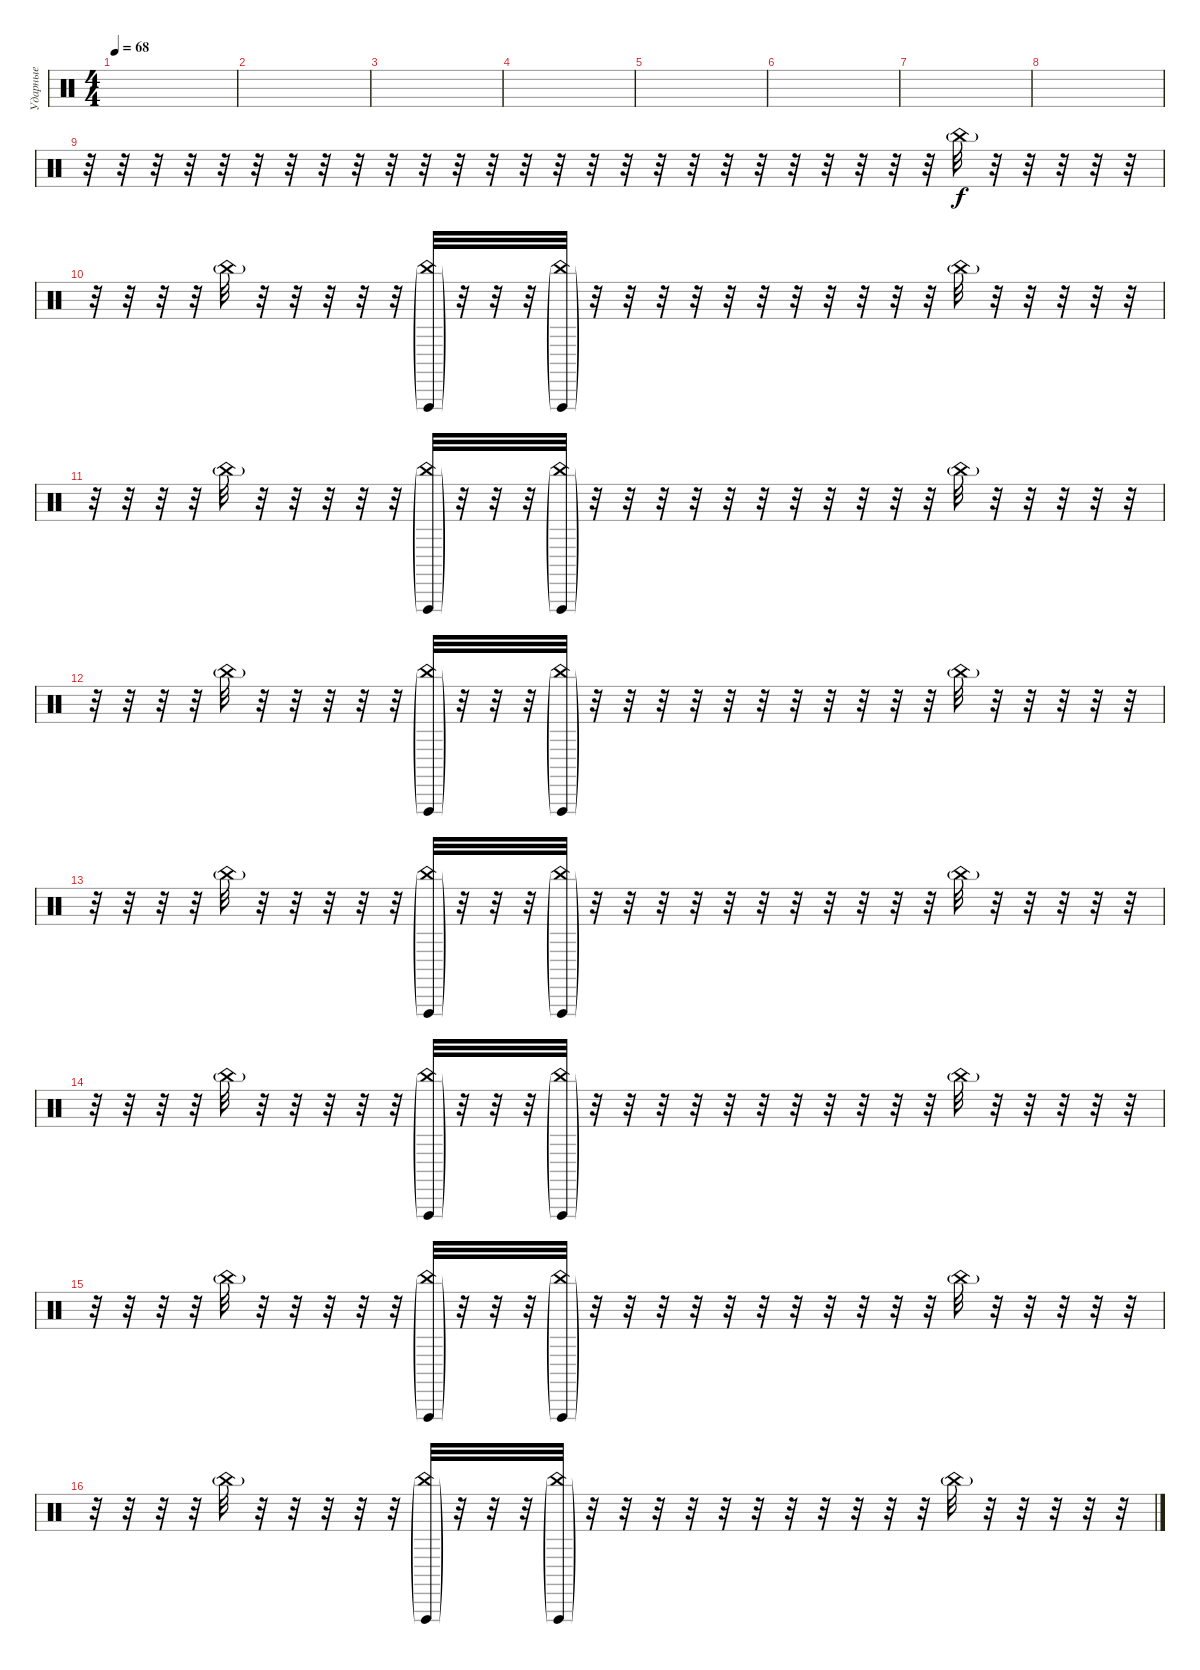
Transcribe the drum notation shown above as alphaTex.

\track ("Ударные" "Ударные") {instrument percussion}
\staff {score}
\articulation defaults
\ts (4 4)
\tempo 68
\clef neutral
\ks c
|
|
|
|
|
|
|
|
r.32 r.32 r.32 r.32 r.32 r.32 r.32 r.32 r.32 r.32 r.32 r.32 r.32 r.32 r.32 r.32 r.32 r.32 r.32 r.32 r.32 r.32 r.32 r.32 r.32 r.32 "China (hit)"{g}.32 r.32 r.32 r.32 r.32 r.32 |
r.32 r.32 r.32 r.32 "China (hit)"{g}.32 r.32 r.32 r.32 r.32 r.32 ("China (hit)"{g} "Vibraslap (hit)"{g}).32 r.32 r.32 r.32 ("China (hit)"{g} "Vibraslap (hit)"{g}).32 r.32 r.32 r.32 r.32 r.32 r.32 r.32 r.32 r.32 r.32 r.32 "China (hit)"{g}.32 r.32 r.32 r.32 r.32 r.32 |
r.32 r.32 r.32 r.32 "China (hit)"{g}.32 r.32 r.32 r.32 r.32 r.32 ("China (hit)"{g} "Vibraslap (hit)"{g}).32 r.32 r.32 r.32 ("China (hit)"{g} "Vibraslap (hit)"{g}).32 r.32 r.32 r.32 r.32 r.32 r.32 r.32 r.32 r.32 r.32 r.32 "China (hit)"{g}.32 r.32 r.32 r.32 r.32 r.32 |
r.32 r.32 r.32 r.32 "China (hit)"{g}.32 r.32 r.32 r.32 r.32 r.32 ("China (hit)"{g} "Vibraslap (hit)"{g}).32 r.32 r.32 r.32 ("China (hit)"{g} "Vibraslap (hit)"{g}).32 r.32 r.32 r.32 r.32 r.32 r.32 r.32 r.32 r.32 r.32 r.32 "China (hit)"{g}.32 r.32 r.32 r.32 r.32 r.32 |
r.32 r.32 r.32 r.32 "China (hit)"{g}.32 r.32 r.32 r.32 r.32 r.32 ("China (hit)"{g} "Vibraslap (hit)"{g}).32 r.32 r.32 r.32 ("China (hit)"{g} "Vibraslap (hit)"{g}).32 r.32 r.32 r.32 r.32 r.32 r.32 r.32 r.32 r.32 r.32 r.32 "China (hit)"{g}.32 r.32 r.32 r.32 r.32 r.32 |
r.32 r.32 r.32 r.32 "China (hit)"{g}.32 r.32 r.32 r.32 r.32 r.32 ("China (hit)"{g} "Vibraslap (hit)"{g}).32 r.32 r.32 r.32 ("China (hit)"{g} "Vibraslap (hit)"{g}).32 r.32 r.32 r.32 r.32 r.32 r.32 r.32 r.32 r.32 r.32 r.32 "China (hit)"{g}.32 r.32 r.32 r.32 r.32 r.32 |
r.32 r.32 r.32 r.32 "China (hit)"{g}.32 r.32 r.32 r.32 r.32 r.32 ("China (hit)"{g} "Vibraslap (hit)"{g}).32 r.32 r.32 r.32 ("China (hit)"{g} "Vibraslap (hit)"{g}).32 r.32 r.32 r.32 r.32 r.32 r.32 r.32 r.32 r.32 r.32 r.32 "China (hit)"{g}.32 r.32 r.32 r.32 r.32 r.32 |
r.32 r.32 r.32 r.32 "China (hit)"{g}.32 r.32 r.32 r.32 r.32 r.32 ("China (hit)"{g} "Vibraslap (hit)"{g}).32 r.32 r.32 r.32 ("China (hit)"{g} "Vibraslap (hit)"{g}).32 r.32 r.32 r.32 r.32 r.32 r.32 r.32 r.32 r.32 r.32 r.32 "China (hit)"{g}.32 r.32 r.32 r.32 r.32 r.32
